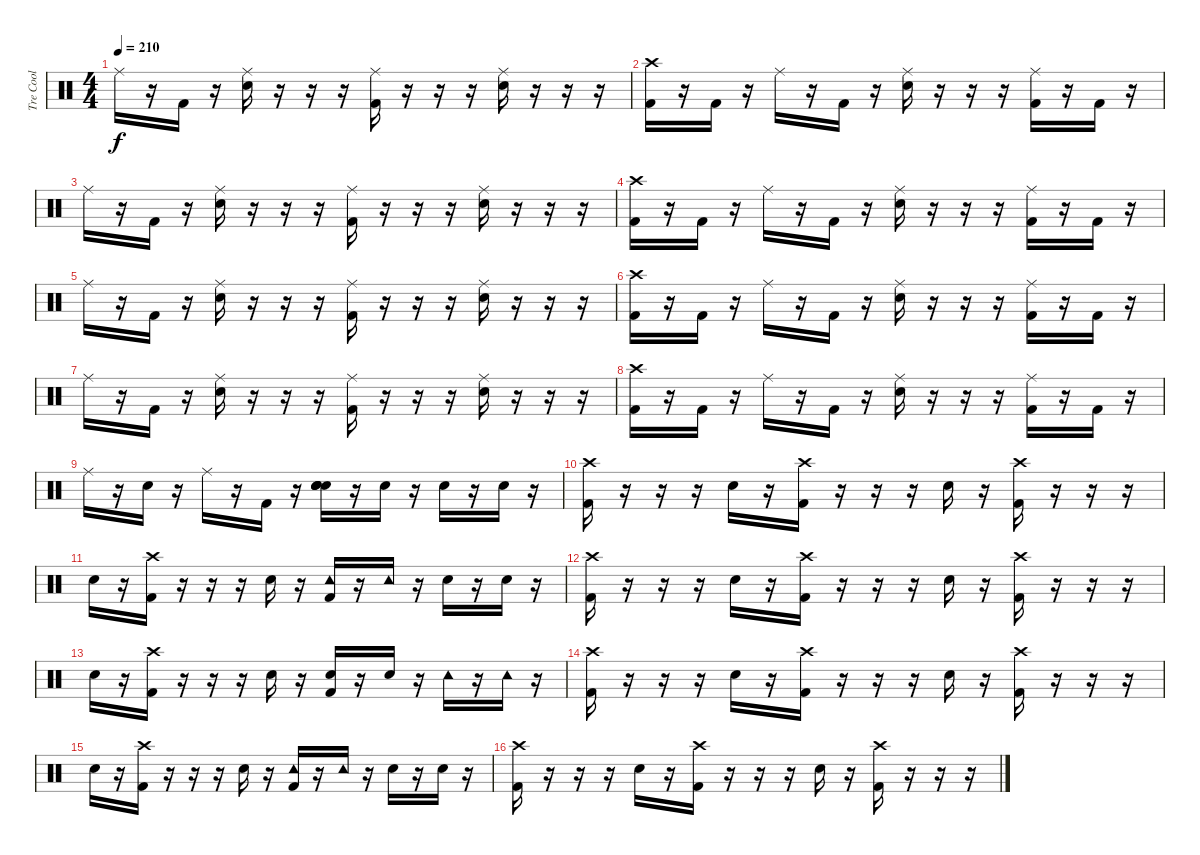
\track ("Tre Cool" "Tre Cool") {instrument percussion}
\staff {score}
\articulation defaults
\ts (4 4)
\tempo 210
\clef neutral
\ks c "Ride (middle)".16{dy f}
r.16 "Kick (hit) 2".16 r.16 ("Ride (middle)" "Snare (hit) 2").16 r.16 r.16 r.16 ("Ride (middle)" "Kick (hit) 2").16 r.16 r.16 r.16 ("Ride (middle)" "Snare (hit) 2").16 r.16 r.16 r.16 |
("Crash high (hit)" "Kick (hit) 2").16 r.16 "Kick (hit) 2".16 r.16 "Ride (middle)".16 r.16 "Kick (hit) 2".16 r.16 ("Ride (middle)" "Snare (hit) 2").16 r.16 r.16 r.16 ("Ride (middle)" "Kick (hit) 2").16 r.16 "Kick (hit) 2".16 r.16 |
"Ride (middle)".16 r.16 "Kick (hit) 2".16 r.16 ("Ride (middle)" "Snare (hit) 2").16 r.16 r.16 r.16 ("Ride (middle)" "Kick (hit) 2").16 r.16 r.16 r.16 ("Ride (middle)" "Snare (hit) 2").16 r.16 r.16 r.16 |
("Crash high (hit)" "Kick (hit) 2").16 r.16 "Kick (hit) 2".16 r.16 "Ride (middle)".16 r.16 "Kick (hit) 2".16 r.16 ("Ride (middle)" "Snare (hit) 2").16 r.16 r.16 r.16 ("Ride (middle)" "Kick (hit) 2").16 r.16 "Kick (hit) 2".16 r.16 |
"Ride (middle)".16 r.16 "Kick (hit) 2".16 r.16 ("Ride (middle)" "Snare (hit) 2").16 r.16 r.16 r.16 ("Ride (middle)" "Kick (hit) 2").16 r.16 r.16 r.16 ("Ride (middle)" "Snare (hit) 2").16 r.16 r.16 r.16 |
("Crash high (hit)" "Kick (hit) 2").16 r.16 "Kick (hit) 2".16 r.16 "Ride (middle)".16 r.16 "Kick (hit) 2".16 r.16 ("Ride (middle)" "Snare (hit) 2").16 r.16 r.16 r.16 ("Ride (middle)" "Kick (hit) 2").16 r.16 "Kick (hit) 2".16 r.16 |
"Ride (middle)".16 r.16 "Kick (hit) 2".16 r.16 ("Ride (middle)" "Snare (hit) 2").16 r.16 r.16 r.16 ("Ride (middle)" "Kick (hit) 2").16 r.16 r.16 r.16 ("Ride (middle)" "Snare (hit) 2").16 r.16 r.16 r.16 |
("Crash high (hit)" "Kick (hit) 2").16 r.16 "Kick (hit) 2".16 r.16 "Ride (middle)".16 r.16 "Kick (hit) 2".16 r.16 ("Ride (middle)" "Snare (hit) 2").16 r.16 r.16 r.16 ("Ride (middle)" "Kick (hit) 2").16 r.16 "Kick (hit) 2".16 r.16 |
"Ride (middle)".16 r.16 "Snare (hit) 2".16 r.16 "Ride (middle)".16 r.16 "Kick (hit) 2".16 r.16 ("Snare (hit) 2" "Snare (hit) 2" "Snare (hit) 2" "Snare (hit) 2").16 r.16 "Snare (hit) 2".16 r.16 "Snare (hit) 2".16 r.16 "Snare (hit) 2".16 r.16 |
("Crash high (hit)" "Kick (hit) 2").16 r.16 r.16 r.16 "Snare (hit) 2".16 r.16 ("Crash high (hit)" "Kick (hit) 2").16 r.16 r.16 r.16 "Snare (hit) 2".16 r.16 ("Crash high (hit)" "Kick (hit) 2").16 r.16 r.16 r.16 |
"Snare (hit) 2".16 r.16 ("Crash high (hit)" "Kick (hit) 2").16 r.16 r.16 r.16 "Snare (hit) 2".16 r.16 ("Tambourine (hit)" "Kick (hit) 2").16 r.16 "Tambourine (hit)".16 r.16 "Snare (hit) 2".16 r.16 "Snare (hit) 2".16 r.16 |
("Crash high (hit)" "Kick (hit) 2").16 r.16 r.16 r.16 "Snare (hit) 2".16 r.16 ("Crash high (hit)" "Kick (hit) 2").16 r.16 r.16 r.16 "Snare (hit) 2".16 r.16 ("Crash high (hit)" "Kick (hit) 2").16 r.16 r.16 r.16 |
"Snare (hit) 2".16 r.16 ("Crash high (hit)" "Kick (hit) 2").16 r.16 r.16 r.16 "Snare (hit) 2".16 r.16 ("Snare (hit) 2" "Kick (hit) 2").16 r.16 "Snare (hit) 2".16 r.16 "Tambourine (hit)".16 r.16 "Tambourine (hit)".16 r.16 |
("Crash high (hit)" "Kick (hit) 2").16 r.16 r.16 r.16 "Snare (hit) 2".16 r.16 ("Crash high (hit)" "Kick (hit) 2").16 r.16 r.16 r.16 "Snare (hit) 2".16 r.16 ("Crash high (hit)" "Kick (hit) 2").16 r.16 r.16 r.16 |
"Snare (hit) 2".16 r.16 ("Crash high (hit)" "Kick (hit) 2").16 r.16 r.16 r.16 "Snare (hit) 2".16 r.16 ("Tambourine (hit)" "Kick (hit) 2").16 r.16 "Tambourine (hit)".16 r.16 "Snare (hit) 2".16 r.16 "Snare (hit) 2".16 r.16 |
("Crash high (hit)" "Kick (hit) 2").16 r.16 r.16 r.16 "Snare (hit) 2".16 r.16 ("Crash high (hit)" "Kick (hit) 2").16 r.16 r.16 r.16 "Snare (hit) 2".16 r.16 ("Crash high (hit)" "Kick (hit) 2").16 r.16 r.16 r.16
